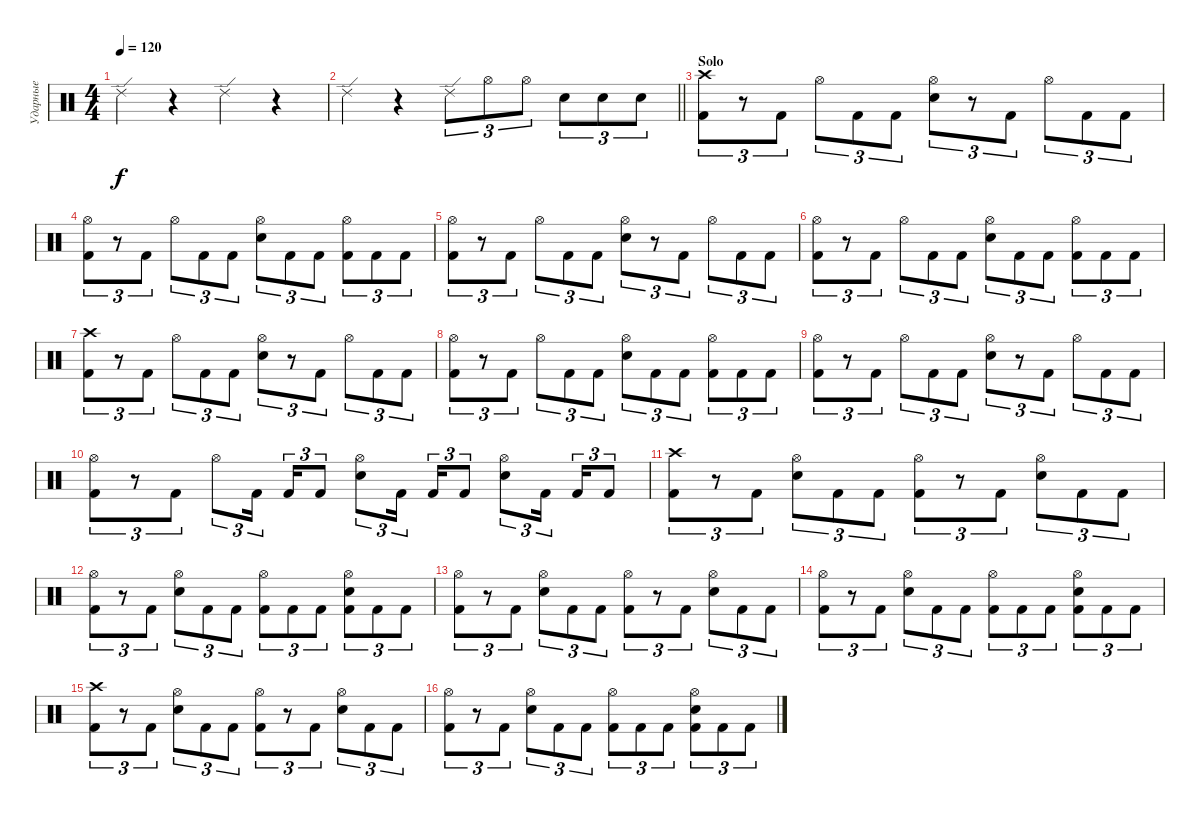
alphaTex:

\track ("Ударные" "Ударные") {instrument percussion}
\staff {score}
\articulation defaults
\ts (4 4)
\tempo 120
\clef neutral
\ks c "Ride (edge) 2".4{dy f}
r.4 "Ride (edge) 2".4 r.4 |
\barLineRight lightlight "Ride (edge) 2".4
r.4 "Ride (edge) 2".8{tu (3 2)} "Hi-Hat (open)".8{tu (3 2)} "Hi-Hat (open)".8{tu (3 2)} "Electric Snare (hit)".8{tu (3 2)} "Electric Snare (hit)".8{tu (3 2)} "Electric Snare (hit)".8{tu (3 2)} |
\section ("" "Solo")
("Crash high (hit)" "Kick (hit) 2").8{tu (3 2)} r.8{tu (3 2)} "Kick (hit) 2".8{tu (3 2)} "Hi-Hat (open)".8{tu (3 2)} "Kick (hit) 2".8{tu (3 2)} "Kick (hit) 2".8{tu (3 2)} ("Hi-Hat (open)" "Electric Snare (hit)").8{tu (3 2)} r.8{tu (3 2)} "Kick (hit) 2".8{tu (3 2)} "Hi-Hat (open)".8{tu (3 2)} "Kick (hit) 2".8{tu (3 2)} "Kick (hit) 2".8{tu (3 2)} |
("Hi-Hat (open)" "Kick (hit) 2").8{tu (3 2)} r.8{tu (3 2)} "Kick (hit) 2".8{tu (3 2)} "Hi-Hat (open)".8{tu (3 2)} "Kick (hit) 2".8{tu (3 2)} "Kick (hit) 2".8{tu (3 2)} ("Hi-Hat (open)" "Electric Snare (hit)").8{tu (3 2)} "Kick (hit) 2".8{tu (3 2)} "Kick (hit) 2".8{tu (3 2)} ("Hi-Hat (open)" "Kick (hit) 2").8{tu (3 2)} "Kick (hit) 2".8{tu (3 2)} "Kick (hit) 2".8{tu (3 2)} |
("Hi-Hat (open)" "Kick (hit) 2").8{tu (3 2)} r.8{tu (3 2)} "Kick (hit) 2".8{tu (3 2)} "Hi-Hat (open)".8{tu (3 2)} "Kick (hit) 2".8{tu (3 2)} "Kick (hit) 2".8{tu (3 2)} ("Hi-Hat (open)" "Electric Snare (hit)").8{tu (3 2)} r.8{tu (3 2)} "Kick (hit) 2".8{tu (3 2)} "Hi-Hat (open)".8{tu (3 2)} "Kick (hit) 2".8{tu (3 2)} "Kick (hit) 2".8{tu (3 2)} |
("Hi-Hat (open)" "Kick (hit) 2").8{tu (3 2)} r.8{tu (3 2)} "Kick (hit) 2".8{tu (3 2)} "Hi-Hat (open)".8{tu (3 2)} "Kick (hit) 2".8{tu (3 2)} "Kick (hit) 2".8{tu (3 2)} ("Hi-Hat (open)" "Electric Snare (hit)").8{tu (3 2)} "Kick (hit) 2".8{tu (3 2)} "Kick (hit) 2".8{tu (3 2)} ("Hi-Hat (open)" "Kick (hit) 2").8{tu (3 2)} "Kick (hit) 2".8{tu (3 2)} "Kick (hit) 2".8{tu (3 2)} |
("Crash high (hit)" "Kick (hit) 2").8{tu (3 2)} r.8{tu (3 2)} "Kick (hit) 2".8{tu (3 2)} "Hi-Hat (open)".8{tu (3 2)} "Kick (hit) 2".8{tu (3 2)} "Kick (hit) 2".8{tu (3 2)} ("Hi-Hat (open)" "Electric Snare (hit)").8{tu (3 2)} r.8{tu (3 2)} "Kick (hit) 2".8{tu (3 2)} "Hi-Hat (open)".8{tu (3 2)} "Kick (hit) 2".8{tu (3 2)} "Kick (hit) 2".8{tu (3 2)} |
("Hi-Hat (open)" "Kick (hit) 2").8{tu (3 2)} r.8{tu (3 2)} "Kick (hit) 2".8{tu (3 2)} "Hi-Hat (open)".8{tu (3 2)} "Kick (hit) 2".8{tu (3 2)} "Kick (hit) 2".8{tu (3 2)} ("Hi-Hat (open)" "Electric Snare (hit)").8{tu (3 2)} "Kick (hit) 2".8{tu (3 2)} "Kick (hit) 2".8{tu (3 2)} ("Hi-Hat (open)" "Kick (hit) 2").8{tu (3 2)} "Kick (hit) 2".8{tu (3 2)} "Kick (hit) 2".8{tu (3 2)} |
("Hi-Hat (open)" "Kick (hit) 2").8{tu (3 2)} r.8{tu (3 2)} "Kick (hit) 2".8{tu (3 2)} "Hi-Hat (open)".8{tu (3 2)} "Kick (hit) 2".8{tu (3 2)} "Kick (hit) 2".8{tu (3 2)} ("Hi-Hat (open)" "Electric Snare (hit)").8{tu (3 2)} r.8{tu (3 2)} "Kick (hit) 2".8{tu (3 2)} "Hi-Hat (open)".8{tu (3 2)} "Kick (hit) 2".8{tu (3 2)} "Kick (hit) 2".8{tu (3 2)} |
("Hi-Hat (open)" "Kick (hit) 2").8{tu (3 2)} r.8{tu (3 2)} "Kick (hit) 2".8{tu (3 2)} "Hi-Hat (open)".8{tu (3 2)} "Kick (hit) 2".16{tu (3 2)} "Kick (hit) 2".16{tu (3 2)} "Kick (hit) 2".8{tu (3 2)} ("Hi-Hat (open)" "Electric Snare (hit)").8{tu (3 2)} "Kick (hit) 2".16{tu (3 2)} "Kick (hit) 2".16{tu (3 2)} "Kick (hit) 2".8{tu (3 2)} ("Hi-Hat (open)" "Electric Snare (hit)").8{tu (3 2)} "Kick (hit) 2".16{tu (3 2)} "Kick (hit) 2".16{tu (3 2)} "Kick (hit) 2".8{tu (3 2)} |
("Crash high (hit)" "Kick (hit) 2").8{tu (3 2)} r.8{tu (3 2)} "Kick (hit) 2".8{tu (3 2)} ("Hi-Hat (open)" "Electric Snare (hit)").8{tu (3 2)} "Kick (hit) 2".8{tu (3 2)} "Kick (hit) 2".8{tu (3 2)} ("Hi-Hat (open)" "Kick (hit) 2").8{tu (3 2)} r.8{tu (3 2)} "Kick (hit) 2".8{tu (3 2)} ("Hi-Hat (open)" "Electric Snare (hit)").8{tu (3 2)} "Kick (hit) 2".8{tu (3 2)} "Kick (hit) 2".8{tu (3 2)} |
("Hi-Hat (open)" "Kick (hit) 2").8{tu (3 2)} r.8{tu (3 2)} "Kick (hit) 2".8{tu (3 2)} ("Hi-Hat (open)" "Electric Snare (hit)").8{tu (3 2)} "Kick (hit) 2".8{tu (3 2)} "Kick (hit) 2".8{tu (3 2)} ("Hi-Hat (open)" "Kick (hit) 2").8{tu (3 2)} "Kick (hit) 2".8{tu (3 2)} "Kick (hit) 2".8{tu (3 2)} ("Hi-Hat (open)" "Electric Snare (hit)" "Kick (hit) 2").8{tu (3 2)} "Kick (hit) 2".8{tu (3 2)} "Kick (hit) 2".8{tu (3 2)} |
("Hi-Hat (open)" "Kick (hit) 2").8{tu (3 2)} r.8{tu (3 2)} "Kick (hit) 2".8{tu (3 2)} ("Hi-Hat (open)" "Electric Snare (hit)").8{tu (3 2)} "Kick (hit) 2".8{tu (3 2)} "Kick (hit) 2".8{tu (3 2)} ("Hi-Hat (open)" "Kick (hit) 2").8{tu (3 2)} r.8{tu (3 2)} "Kick (hit) 2".8{tu (3 2)} ("Hi-Hat (open)" "Electric Snare (hit)").8{tu (3 2)} "Kick (hit) 2".8{tu (3 2)} "Kick (hit) 2".8{tu (3 2)} |
("Hi-Hat (open)" "Kick (hit) 2").8{tu (3 2)} r.8{tu (3 2)} "Kick (hit) 2".8{tu (3 2)} ("Hi-Hat (open)" "Electric Snare (hit)").8{tu (3 2)} "Kick (hit) 2".8{tu (3 2)} "Kick (hit) 2".8{tu (3 2)} ("Hi-Hat (open)" "Kick (hit) 2").8{tu (3 2)} "Kick (hit) 2".8{tu (3 2)} "Kick (hit) 2".8{tu (3 2)} ("Hi-Hat (open)" "Electric Snare (hit)" "Kick (hit) 2").8{tu (3 2)} "Kick (hit) 2".8{tu (3 2)} "Kick (hit) 2".8{tu (3 2)} |
("Crash high (hit)" "Kick (hit) 2").8{tu (3 2)} r.8{tu (3 2)} "Kick (hit) 2".8{tu (3 2)} ("Hi-Hat (open)" "Electric Snare (hit)").8{tu (3 2)} "Kick (hit) 2".8{tu (3 2)} "Kick (hit) 2".8{tu (3 2)} ("Hi-Hat (open)" "Kick (hit) 2").8{tu (3 2)} r.8{tu (3 2)} "Kick (hit) 2".8{tu (3 2)} ("Hi-Hat (open)" "Electric Snare (hit)").8{tu (3 2)} "Kick (hit) 2".8{tu (3 2)} "Kick (hit) 2".8{tu (3 2)} |
("Hi-Hat (open)" "Kick (hit) 2").8{tu (3 2)} r.8{tu (3 2)} "Kick (hit) 2".8{tu (3 2)} ("Hi-Hat (open)" "Electric Snare (hit)").8{tu (3 2)} "Kick (hit) 2".8{tu (3 2)} "Kick (hit) 2".8{tu (3 2)} ("Hi-Hat (open)" "Kick (hit) 2").8{tu (3 2)} "Kick (hit) 2".8{tu (3 2)} "Kick (hit) 2".8{tu (3 2)} ("Hi-Hat (open)" "Electric Snare (hit)" "Kick (hit) 2").8{tu (3 2)} "Kick (hit) 2".8{tu (3 2)} "Kick (hit) 2".8{tu (3 2)}
